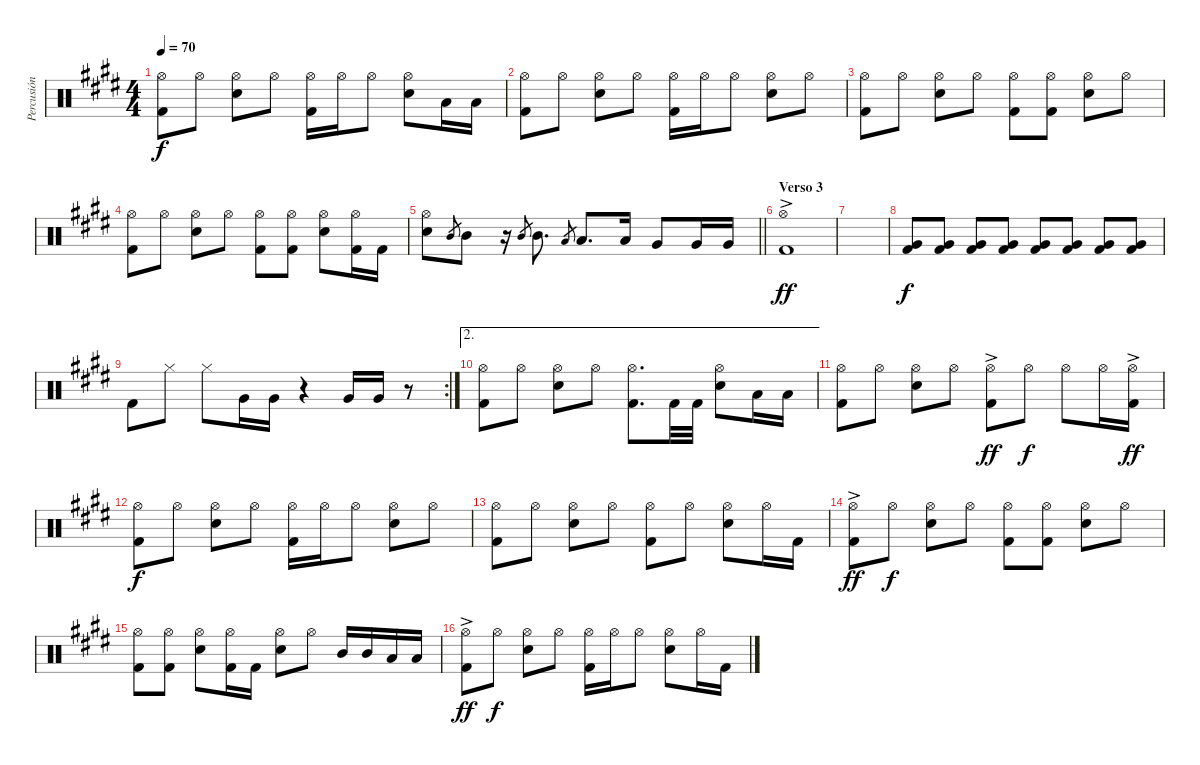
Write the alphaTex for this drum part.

\track ("Percusión" "Percusión") {instrument percussion}
\staff {score}
\articulation defaults
\ts (4 4)
\tempo 70
\clef neutral
\ks e
("Hi-Hat (open)" "Kick (hit) 2").8{dy f} "Hi-Hat (open)".8 ("Hi-Hat (open)" "Snare (hit) 2").8 "Hi-Hat (open)".8 ("Hi-Hat (open)" "Kick (hit) 2").16 "Hi-Hat (open)".16 "Hi-Hat (open)".8 ("Hi-Hat (open)" "Snare (hit) 2").8 "Low Tom (hit)".16 "Low Tom (hit)".16 |
("Hi-Hat (open)" "Kick (hit) 2").8 "Hi-Hat (open)".8 ("Hi-Hat (open)" "Snare (hit) 2").8 "Hi-Hat (open)".8 ("Hi-Hat (open)" "Kick (hit) 2").16 "Hi-Hat (open)".16 "Hi-Hat (open)".8 ("Hi-Hat (open)" "Snare (hit) 2").8 "Hi-Hat (open)".8 |
("Hi-Hat (open)" "Kick (hit) 2").8 "Hi-Hat (open)".8 ("Hi-Hat (open)" "Snare (hit) 2").8 "Hi-Hat (open)".8 ("Hi-Hat (open)" "Kick (hit) 2").8 ("Hi-Hat (open)" "Kick (hit) 2").8 ("Hi-Hat (open)" "Snare (hit) 2").8 "Hi-Hat (open)".8 |
("Hi-Hat (open)" "Kick (hit) 2").8 "Hi-Hat (open)".8 ("Hi-Hat (open)" "Snare (hit) 2").8 "Hi-Hat (open)".8 ("Hi-Hat (open)" "Kick (hit) 2").8 ("Hi-Hat (open)" "Kick (hit) 2").8 ("Hi-Hat (open)" "Snare (hit) 2").8 ("Hi-Hat (open)" "Kick (hit) 2").16 "Kick (hit) 2".16 |
\barLineRight lightlight
("Hi-Hat (open)" "Snare (hit) 2").8 "Mid Tom (hit)".8{gr} "Mid Tom (hit)".8 r.16 "Mid Tom (hit)".8{gr} "Mid Tom (hit)".8{d} "Low Tom (hit)".8{gr} "Low Tom (hit)".8{d} "Low Tom (hit)".16 "Very Low Tom (hit)".8 "Very Low Tom (hit)".16 "Very Low Tom (hit)".16 |
\section ("" "Verso 3")
("Hi-Hat (open)"{ac} "Kick (hit) 2").1{dy ff} |
|
("Very Low Tom (hit)" "Kick (hit) 2").8{dy f volume 6} ("Very Low Tom (hit)" "Kick (hit) 2").8 ("Very Low Tom (hit)" "Kick (hit) 2").8 ("Very Low Tom (hit)" "Kick (hit) 2").8 ("Very Low Tom (hit)" "Kick (hit) 2").8 ("Very Low Tom (hit)" "Kick (hit) 2").8 ("Very Low Tom (hit)" "Kick (hit) 2").8 ("Very Low Tom (hit)" "Kick (hit) 2").8 |
\rc 2 "Kick (hit) 2".8 "Hi-Hat (closed)".8 "Hi-Hat (closed)".8 "Very Low Tom (hit)".16 "Very Low Tom (hit)".16
r.4 "Very Low Tom (hit)".16 "Very Low Tom (hit)".16 r.8 |
\ae 2
("Hi-Hat (open)" "Kick (hit) 2").8 "Hi-Hat (open)".8 ("Hi-Hat (open)" "Snare (hit) 2").8 "Hi-Hat (open)".8 ("Hi-Hat (open)" "Kick (hit) 2").8{d} "Kick (hit) 2".32 "Kick (hit) 2".32 ("Hi-Hat (open)" "Snare (hit) 2").8 "Low Tom (hit)".16 "Low Tom (hit)".16 |
("Hi-Hat (open)" "Kick (hit) 2").8 "Hi-Hat (open)".8 ("Hi-Hat (open)" "Snare (hit) 2").8 "Hi-Hat (open)".8 ("Hi-Hat (open)"{ac} "Kick (hit) 2").8{dy ff} "Hi-Hat (open)".8{dy f} "Hi-Hat (open)".8 "Hi-Hat (open)".16 ("Hi-Hat (open)"{ac} "Kick (hit) 2").16{dy ff} |
("Hi-Hat (open)" "Kick (hit) 2").8{dy f} "Hi-Hat (open)".8 ("Hi-Hat (open)" "Snare (hit) 2").8 "Hi-Hat (open)".8 ("Hi-Hat (open)" "Kick (hit) 2").16 "Hi-Hat (open)".16 "Hi-Hat (open)".8 ("Hi-Hat (open)" "Snare (hit) 2").8 "Hi-Hat (open)".8 |
("Hi-Hat (open)" "Kick (hit) 2").8 "Hi-Hat (open)".8 ("Hi-Hat (open)" "Snare (hit) 2").8 "Hi-Hat (open)".8 ("Hi-Hat (open)" "Kick (hit) 2").8 "Hi-Hat (open)".8 ("Hi-Hat (open)" "Snare (hit) 2").8 "Hi-Hat (open)".16 "Kick (hit) 2".16 |
("Hi-Hat (open)"{ac} "Kick (hit) 2").8{dy ff} "Hi-Hat (open)".8{dy f} ("Hi-Hat (open)" "Snare (hit) 2").8 "Hi-Hat (open)".8 ("Hi-Hat (open)" "Kick (hit) 2").8 ("Hi-Hat (open)" "Kick (hit) 2").8 ("Hi-Hat (open)" "Snare (hit) 2").8 "Hi-Hat (open)".8 |
("Hi-Hat (open)" "Kick (hit) 2").8 ("Hi-Hat (open)" "Kick (hit) 2").8 ("Hi-Hat (open)" "Snare (hit) 2").8 ("Hi-Hat (open)" "Kick (hit) 2").16 "Kick (hit) 2".16 ("Hi-Hat (open)" "Snare (hit) 2").8 "Hi-Hat (open)".8 "Mid Tom (hit)".16 "Mid Tom (hit)".16 "Low Tom (hit)".16 "Low Tom (hit)".16 |
("Hi-Hat (open)"{ac} "Kick (hit) 2").8{dy ff} "Hi-Hat (open)".8{dy f} ("Hi-Hat (open)" "Snare (hit) 2").8 "Hi-Hat (open)".8 ("Hi-Hat (open)" "Kick (hit) 2").16 "Hi-Hat (open)".16 "Hi-Hat (open)".8 ("Hi-Hat (open)" "Snare (hit) 2").8 "Hi-Hat (open)".16 "Kick (hit) 2".16
